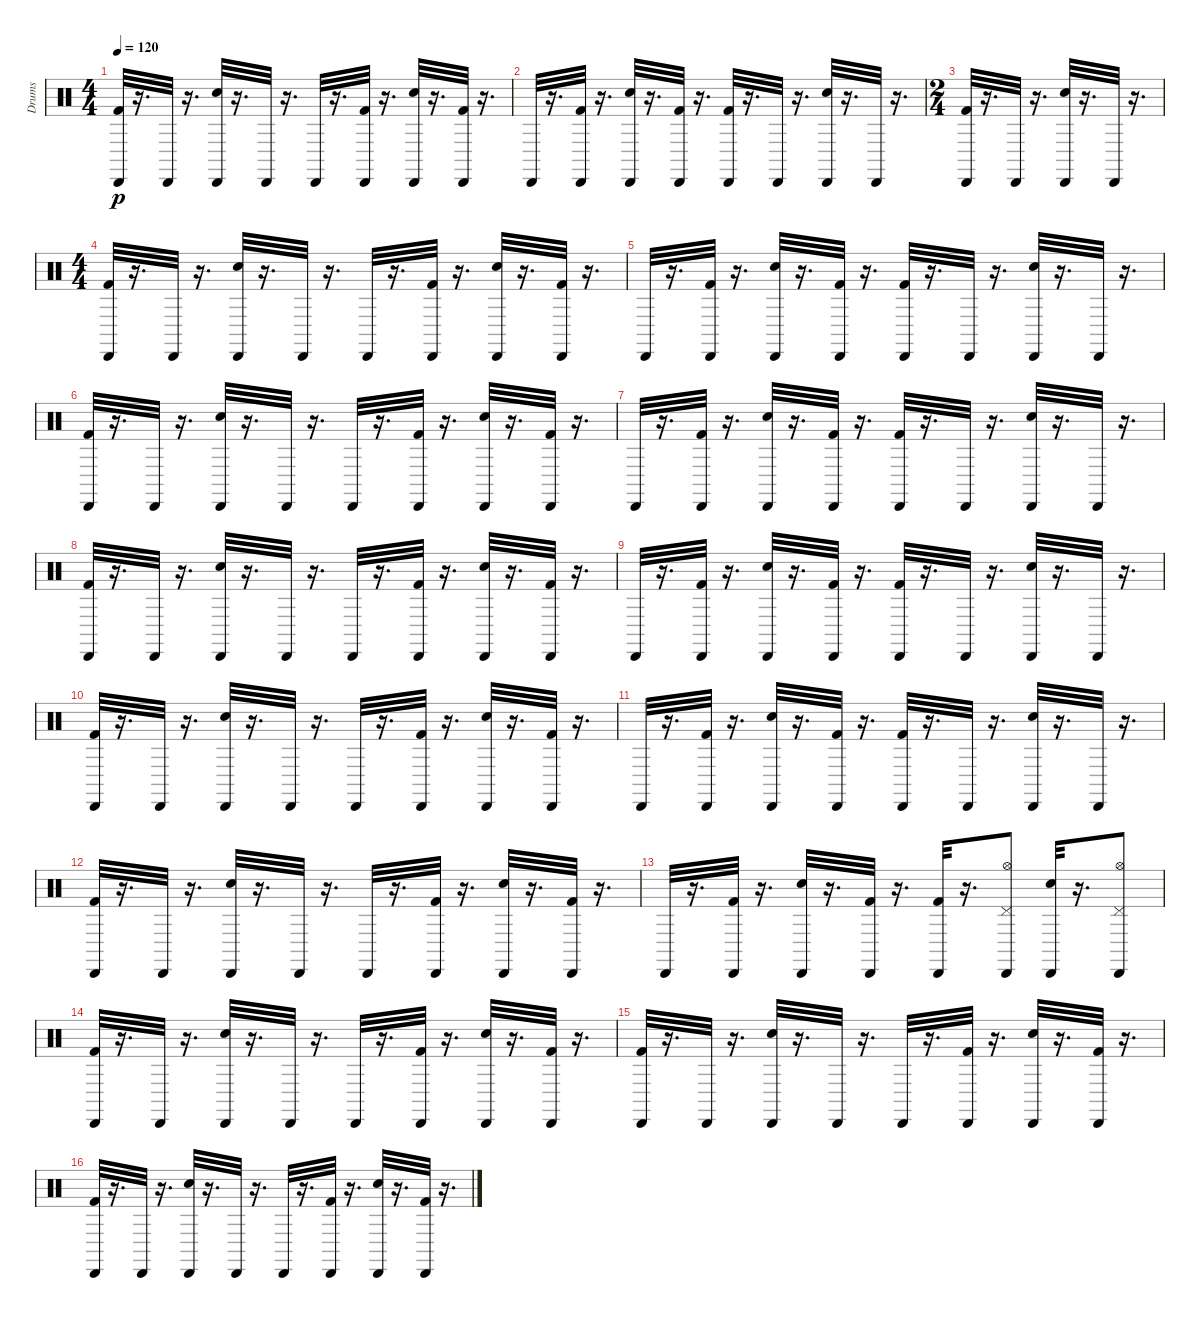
\track ("Drums" "Drums") {instrument percussion}
\staff {score}
\articulation defaults
\ts (4 4)
\tempo 120
\clef neutral
\ks c
("Cabasa (hit)" "Kick (hit) 2").32{dy p} r.16{d} "Cabasa (hit)".32 r.16{d} ("Cabasa (hit)" "Electric Snare (hit)").32 r.16{d} "Cabasa (hit)".32 r.16{d} "Cabasa (hit)".32 r.16{d} ("Cabasa (hit)" "Kick (hit) 2").32 r.16{d} ("Cabasa (hit)" "Electric Snare (hit)").32 r.16{d} ("Cabasa (hit)" "Kick (hit) 2").32 r.16{d} |
"Cabasa (hit)".32 r.16{d} ("Cabasa (hit)" "Kick (hit) 2").32 r.16{d} ("Cabasa (hit)" "Electric Snare (hit)").32 r.16{d} ("Cabasa (hit)" "Kick (hit) 2").32 r.16{d} ("Cabasa (hit)" "Kick (hit) 2").32 r.16{d} "Cabasa (hit)".32 r.16{d} ("Cabasa (hit)" "Electric Snare (hit)").32 r.16{d} "Cabasa (hit)".32 r.16{d} |
\ts (2 4)
("Cabasa (hit)" "Kick (hit) 2").32 r.16{d} "Cabasa (hit)".32 r.16{d} ("Cabasa (hit)" "Electric Snare (hit)").32 r.16{d} "Cabasa (hit)".32 r.16{d} |
\ts (4 4)
("Cabasa (hit)" "Kick (hit) 2").32 r.16{d} "Cabasa (hit)".32 r.16{d} ("Cabasa (hit)" "Electric Snare (hit)").32 r.16{d} "Cabasa (hit)".32 r.16{d} "Cabasa (hit)".32 r.16{d} ("Cabasa (hit)" "Kick (hit) 2").32 r.16{d} ("Cabasa (hit)" "Electric Snare (hit)").32 r.16{d} ("Cabasa (hit)" "Kick (hit) 2").32 r.16{d} |
"Cabasa (hit)".32 r.16{d} ("Cabasa (hit)" "Kick (hit) 2").32 r.16{d} ("Cabasa (hit)" "Electric Snare (hit)").32 r.16{d} ("Cabasa (hit)" "Kick (hit) 2").32 r.16{d} ("Cabasa (hit)" "Kick (hit) 2").32 r.16{d} "Cabasa (hit)".32 r.16{d} ("Cabasa (hit)" "Electric Snare (hit)").32 r.16{d} "Cabasa (hit)".32 r.16{d} |
("Cabasa (hit)" "Kick (hit) 2").32 r.16{d} "Cabasa (hit)".32 r.16{d} ("Cabasa (hit)" "Electric Snare (hit)").32 r.16{d} "Cabasa (hit)".32 r.16{d} "Cabasa (hit)".32 r.16{d} ("Cabasa (hit)" "Kick (hit) 2").32 r.16{d} ("Cabasa (hit)" "Electric Snare (hit)").32 r.16{d} ("Cabasa (hit)" "Kick (hit) 2").32 r.16{d} |
"Cabasa (hit)".32 r.16{d} ("Cabasa (hit)" "Kick (hit) 2").32 r.16{d} ("Cabasa (hit)" "Electric Snare (hit)").32 r.16{d} ("Cabasa (hit)" "Kick (hit) 2").32 r.16{d} ("Cabasa (hit)" "Kick (hit) 2").32 r.16{d} "Cabasa (hit)".32 r.16{d} ("Cabasa (hit)" "Electric Snare (hit)").32 r.16{d} "Cabasa (hit)".32 r.16{d} |
("Cabasa (hit)" "Kick (hit) 2").32 r.16{d} "Cabasa (hit)".32 r.16{d} ("Cabasa (hit)" "Electric Snare (hit)").32 r.16{d} "Cabasa (hit)".32 r.16{d} "Cabasa (hit)".32 r.16{d} ("Cabasa (hit)" "Kick (hit) 2").32 r.16{d} ("Cabasa (hit)" "Electric Snare (hit)").32 r.16{d} ("Cabasa (hit)" "Kick (hit) 2").32 r.16{d} |
"Cabasa (hit)".32 r.16{d} ("Cabasa (hit)" "Kick (hit) 2").32 r.16{d} ("Cabasa (hit)" "Electric Snare (hit)").32 r.16{d} ("Cabasa (hit)" "Kick (hit) 2").32 r.16{d} ("Cabasa (hit)" "Kick (hit) 2").32 r.16{d} "Cabasa (hit)".32 r.16{d} ("Cabasa (hit)" "Electric Snare (hit)").32 r.16{d} "Cabasa (hit)".32 r.16{d} |
("Cabasa (hit)" "Kick (hit) 2").32 r.16{d} "Cabasa (hit)".32 r.16{d} ("Cabasa (hit)" "Electric Snare (hit)").32 r.16{d} "Cabasa (hit)".32 r.16{d} "Cabasa (hit)".32 r.16{d} ("Cabasa (hit)" "Kick (hit) 2").32 r.16{d} ("Cabasa (hit)" "Electric Snare (hit)").32 r.16{d} ("Cabasa (hit)" "Kick (hit) 2").32 r.16{d} |
"Cabasa (hit)".32 r.16{d} ("Cabasa (hit)" "Kick (hit) 2").32 r.16{d} ("Cabasa (hit)" "Electric Snare (hit)").32 r.16{d} ("Cabasa (hit)" "Kick (hit) 2").32 r.16{d} ("Cabasa (hit)" "Kick (hit) 2").32 r.16{d} "Cabasa (hit)".32 r.16{d} ("Cabasa (hit)" "Electric Snare (hit)").32 r.16{d} "Cabasa (hit)".32 r.16{d} |
("Cabasa (hit)" "Kick (hit) 2").32 r.16{d} "Cabasa (hit)".32 r.16{d} ("Cabasa (hit)" "Electric Snare (hit)").32 r.16{d} "Cabasa (hit)".32 r.16{d} "Cabasa (hit)".32 r.16{d} ("Cabasa (hit)" "Kick (hit) 2").32 r.16{d} ("Cabasa (hit)" "Electric Snare (hit)").32 r.16{d} ("Cabasa (hit)" "Kick (hit) 2").32 r.16{d} |
"Cabasa (hit)".32 r.16{d} ("Cabasa (hit)" "Kick (hit) 2").32 r.16{d} ("Cabasa (hit)" "Electric Snare (hit)").32 r.16{d} ("Cabasa (hit)" "Kick (hit) 2").32 r.16{d} ("Cabasa (hit)" "Kick (hit) 2").32 r.16{d} ("Pedal Hi-Hat (hit)" "Hi-Hat (open)" "Cabasa (hit)").8 ("Cabasa (hit)" "Electric Snare (hit)").32 r.16{d} ("Pedal Hi-Hat (hit)" "Hi-Hat (open)" "Cabasa (hit)").8 |
("Cabasa (hit)" "Kick (hit) 2").32 r.16{d} "Cabasa (hit)".32 r.16{d} ("Cabasa (hit)" "Electric Snare (hit)").32 r.16{d} "Cabasa (hit)".32 r.16{d} "Cabasa (hit)".32 r.16{d} ("Cabasa (hit)" "Kick (hit) 2").32 r.16{d} ("Cabasa (hit)" "Electric Snare (hit)").32 r.16{d} ("Cabasa (hit)" "Kick (hit) 2").32 r.16{d} |
("Cabasa (hit)" "Kick (hit) 2").32 r.16{d} "Cabasa (hit)".32 r.16{d} ("Cabasa (hit)" "Electric Snare (hit)").32 r.16{d} "Cabasa (hit)".32 r.16{d} "Cabasa (hit)".32 r.16{d} ("Cabasa (hit)" "Kick (hit) 2").32 r.16{d} ("Cabasa (hit)" "Electric Snare (hit)").32 r.16{d} ("Cabasa (hit)" "Kick (hit) 2").32 r.16{d} |
("Cabasa (hit)" "Kick (hit) 2").32 r.16{d} "Cabasa (hit)".32 r.16{d} ("Cabasa (hit)" "Electric Snare (hit)").32 r.16{d} "Cabasa (hit)".32 r.16{d} "Cabasa (hit)".32 r.16{d} ("Cabasa (hit)" "Kick (hit) 2").32 r.16{d} ("Cabasa (hit)" "Electric Snare (hit)").32 r.16{d} ("Cabasa (hit)" "Kick (hit) 2").32 r.16{d}
